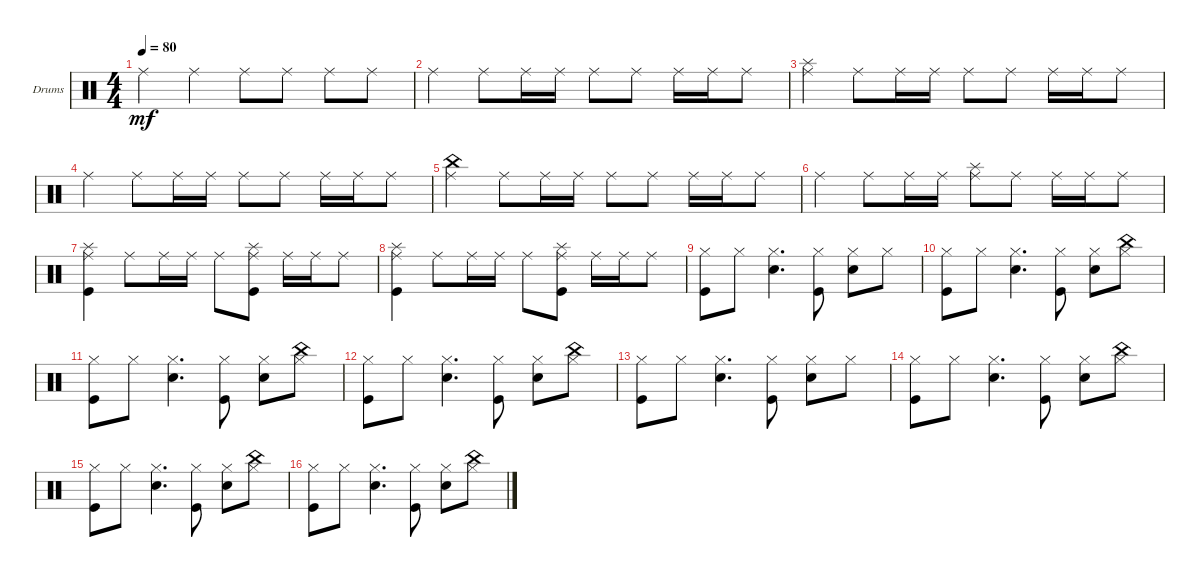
\defaultSystemsLayout 4
\bracketExtendMode nobrackets
\firstSystemTrackNameOrientation horizontal
\otherSystemsTrackNameOrientation horizontal
\track ("Drumkit" "Drums") {instrument percussion}
\staff {score}
\articulation defaults
\ts (4 4)
\tempo 80
\clef neutral
\ks c "Ride (middle)".4{dy mf} "Ride (middle)".4 "Ride (middle)".8 "Ride (middle)".8 "Ride (middle)".8 "Ride (middle)".8
|
"Ride (middle)".4 "Ride (middle)".8 "Ride (middle)".16 "Ride (middle)".16 "Ride (middle)".8 "Ride (middle)".8 "Ride (middle)".16 "Ride (middle)".16 "Ride (middle)".8 |
("Ride (middle)" "Splash (hit)").4 "Ride (middle)".8 "Ride (middle)".16 "Ride (middle)".16 "Ride (middle)".8 "Ride (middle)".8 "Ride (middle)".16 "Ride (middle)".16 "Ride (middle)".8 |
"Ride (middle)".4 "Ride (middle)".8 "Ride (middle)".16 "Ride (middle)".16 "Ride (middle)".8 "Ride (middle)".8 "Ride (middle)".16 "Ride (middle)".16 "Ride (middle)".8 |
("Ride (middle)" "China (hit)").4 "Ride (middle)".8 "Ride (middle)".16 "Ride (middle)".16 "Ride (middle)".8 "Ride (middle)".8 "Ride (middle)".16 "Ride (middle)".16 "Ride (middle)".8 |
"Ride (middle)".4 "Ride (middle)".8 "Ride (middle)".16 "Ride (middle)".16 ("Ride (middle)" "Splash (hit)").8 "Ride (middle)".8 "Ride (middle)".16 "Ride (middle)".16 "Ride (middle)".8 |
("Ride (middle)" "Splash (hit)" "Kick (hit)").4 "Ride (middle)".8 "Ride (middle)".16 "Ride (middle)".16 "Ride (middle)".8 ("Ride (middle)" "Splash (hit)" "Kick (hit)").8 "Ride (middle)".16 "Ride (middle)".16 "Ride (middle)".8 |
("Ride (middle)" "Splash (hit)" "Kick (hit)").4 "Ride (middle)".8 "Ride (middle)".16 "Ride (middle)".16 "Ride (middle)".8 ("Ride (middle)" "Splash (hit)" "Kick (hit)").8 "Ride (middle)".16 "Ride (middle)".16 "Ride (middle)".8 |
("Kick (hit)" "Hi-Hat (closed)").8 "Hi-Hat (closed)".8 ("Hi-Hat (closed)" "Snare (hit) 2").4{d} ("Kick (hit)" "Hi-Hat (closed)").8 ("Snare (hit) 2" "Hi-Hat (closed)").8 "Hi-Hat (closed)".8 |
("Kick (hit)" "Hi-Hat (closed)").8 "Hi-Hat (closed)".8 ("Hi-Hat (closed)" "Snare (hit) 2").4{d} ("Kick (hit)" "Hi-Hat (closed)").8 ("Snare (hit) 2" "Hi-Hat (closed)").8 ("Hi-Hat (closed)" "China (hit)").8 |
("Kick (hit)" "Hi-Hat (closed)").8 "Hi-Hat (closed)".8 ("Hi-Hat (closed)" "Snare (hit) 2").4{d} ("Kick (hit)" "Hi-Hat (closed)").8 ("Snare (hit) 2" "Hi-Hat (closed)").8 ("Hi-Hat (closed)" "China (hit)").8 |
("Kick (hit)" "Hi-Hat (closed)").8 "Hi-Hat (closed)".8 ("Hi-Hat (closed)" "Snare (hit) 2").4{d} ("Kick (hit)" "Hi-Hat (closed)").8 ("Snare (hit) 2" "Hi-Hat (closed)").8 ("Hi-Hat (closed)" "China (hit)").8 |
("Kick (hit)" "Hi-Hat (closed)").8 "Hi-Hat (closed)".8 ("Hi-Hat (closed)" "Snare (hit) 2").4{d} ("Kick (hit)" "Hi-Hat (closed)").8 ("Snare (hit) 2" "Hi-Hat (closed)").8 "Hi-Hat (closed)".8 |
("Kick (hit)" "Hi-Hat (closed)").8 "Hi-Hat (closed)".8 ("Hi-Hat (closed)" "Snare (hit) 2").4{d} ("Kick (hit)" "Hi-Hat (closed)").8 ("Snare (hit) 2" "Hi-Hat (closed)").8 ("Hi-Hat (closed)" "China (hit)").8 |
("Kick (hit)" "Hi-Hat (closed)").8 "Hi-Hat (closed)".8 ("Hi-Hat (closed)" "Snare (hit) 2").4{d} ("Kick (hit)" "Hi-Hat (closed)").8 ("Snare (hit) 2" "Hi-Hat (closed)").8 ("Hi-Hat (closed)" "China (hit)").8 |
("Kick (hit)" "Hi-Hat (closed)").8 "Hi-Hat (closed)".8 ("Hi-Hat (closed)" "Snare (hit) 2").4{d} ("Kick (hit)" "Hi-Hat (closed)").8 ("Snare (hit) 2" "Hi-Hat (closed)").8 ("Hi-Hat (closed)" "China (hit)").8
